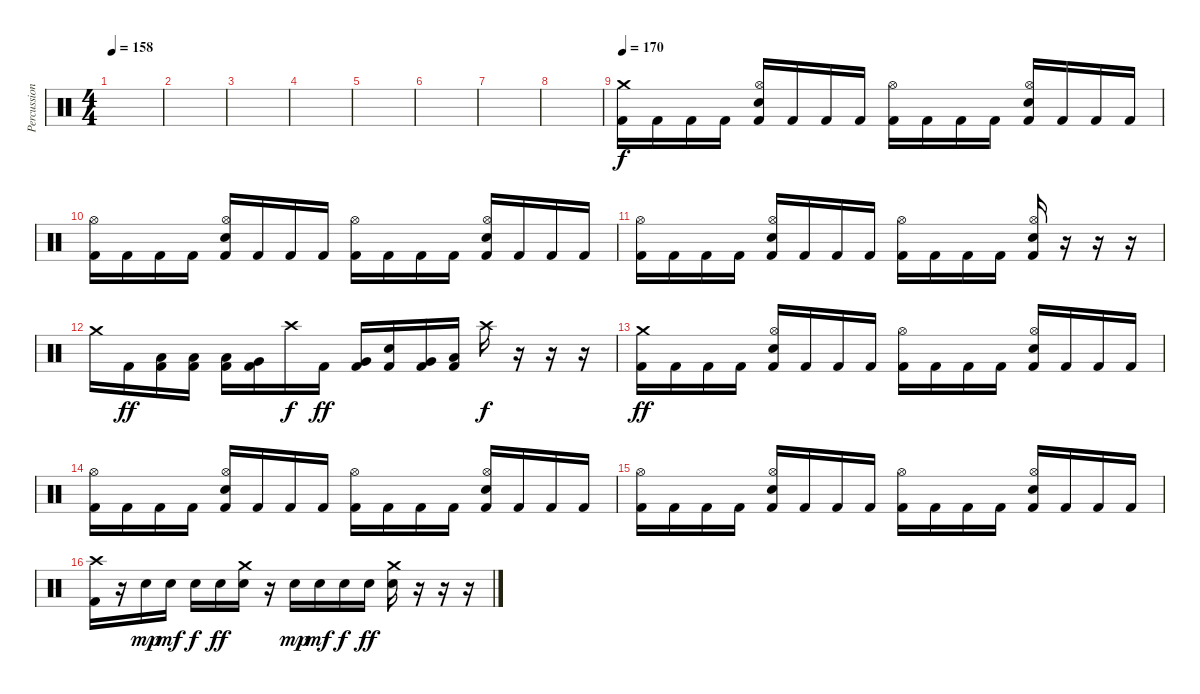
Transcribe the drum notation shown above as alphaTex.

\track ("Percussion" "Percussion") {instrument percussion}
\staff {score}
\articulation defaults
\ts (4 4)
\tempo 158
\clef neutral
\ks c
|
|
|
|
|
|
|
|
\tempo 170
("Crash medium (hit)" "Kick (hit) 2").16 "Kick (hit) 2".16 "Kick (hit) 2".16 "Kick (hit) 2".16 ("Hi-Hat (open)" "Electric Snare (hit)" "Kick (hit) 2").16 "Kick (hit) 2".16 "Kick (hit) 2".16 "Kick (hit) 2".16 ("Hi-Hat (open)" "Kick (hit) 2").16 "Kick (hit) 2".16 "Kick (hit) 2".16 "Kick (hit) 2".16 ("Hi-Hat (open)" "Electric Snare (hit)" "Kick (hit) 2").16 "Kick (hit) 2".16 "Kick (hit) 2".16 "Kick (hit) 2".16 |
("Hi-Hat (open)" "Kick (hit) 2").16 "Kick (hit) 2".16 "Kick (hit) 2".16 "Kick (hit) 2".16 ("Hi-Hat (open)" "Electric Snare (hit)" "Kick (hit) 2").16 "Kick (hit) 2".16 "Kick (hit) 2".16 "Kick (hit) 2".16 ("Hi-Hat (open)" "Kick (hit) 2").16 "Kick (hit) 2".16 "Kick (hit) 2".16 "Kick (hit) 2".16 ("Hi-Hat (open)" "Electric Snare (hit)" "Kick (hit) 2").16 "Kick (hit) 2".16 "Kick (hit) 2".16 "Kick (hit) 2".16 |
("Hi-Hat (open)" "Kick (hit) 2").16 "Kick (hit) 2".16 "Kick (hit) 2".16 "Kick (hit) 2".16 ("Hi-Hat (open)" "Electric Snare (hit)" "Kick (hit) 2").16 "Kick (hit) 2".16 "Kick (hit) 2".16 "Kick (hit) 2".16 ("Hi-Hat (open)" "Kick (hit) 2").16 "Kick (hit) 2".16 "Kick (hit) 2".16 "Kick (hit) 2".16 ("Hi-Hat (open)" "Electric Snare (hit)" "Kick (hit) 2").16 r.16 r.16 r.16 |
"Crash medium (hit)".16{dy f} "Kick (hit) 2".16{dy ff} ("Low Tom (hit)" "Kick (hit) 2").16 ("Low Tom (hit)" "Kick (hit) 2").16 ("Low Tom (hit)" "Kick (hit) 2").16 ("Very Low Tom (hit)" "Kick (hit) 2").16 "Crash high (hit)".16{dy f} "Kick (hit) 2".16{dy ff} ("Very Low Tom (hit)" "Kick (hit) 2").16 ("Metronome (bell)" "Kick (hit) 2").16 ("Very Low Tom (hit)" "Kick (hit) 2").16 ("Low Floor Tom (hit)" "Kick (hit) 2").16 "Crash high (hit)".16{dy f} r.16 r.16 r.16 |
("Crash medium (hit)" "Kick (hit) 2").16{dy ff} "Kick (hit) 2".16 "Kick (hit) 2".16 "Kick (hit) 2".16 ("Hi-Hat (open)" "Electric Snare (hit)" "Kick (hit) 2").16 "Kick (hit) 2".16 "Kick (hit) 2".16 "Kick (hit) 2".16 ("Hi-Hat (open)" "Kick (hit) 2").16 "Kick (hit) 2".16 "Kick (hit) 2".16 "Kick (hit) 2".16 ("Hi-Hat (open)" "Electric Snare (hit)" "Kick (hit) 2").16 "Kick (hit) 2".16 "Kick (hit) 2".16 "Kick (hit) 2".16 |
("Hi-Hat (open)" "Kick (hit) 2").16 "Kick (hit) 2".16 "Kick (hit) 2".16 "Kick (hit) 2".16 ("Hi-Hat (open)" "Electric Snare (hit)" "Kick (hit) 2").16 "Kick (hit) 2".16 "Kick (hit) 2".16 "Kick (hit) 2".16 ("Hi-Hat (open)" "Kick (hit) 2").16 "Kick (hit) 2".16 "Kick (hit) 2".16 "Kick (hit) 2".16 ("Hi-Hat (open)" "Electric Snare (hit)" "Kick (hit) 2").16 "Kick (hit) 2".16 "Kick (hit) 2".16 "Kick (hit) 2".16 |
("Hi-Hat (open)" "Kick (hit) 2").16 "Kick (hit) 2".16 "Kick (hit) 2".16 "Kick (hit) 2".16 ("Hi-Hat (open)" "Electric Snare (hit)" "Kick (hit) 2").16 "Kick (hit) 2".16 "Kick (hit) 2".16 "Kick (hit) 2".16 ("Hi-Hat (open)" "Kick (hit) 2").16 "Kick (hit) 2".16 "Kick (hit) 2".16 "Kick (hit) 2".16 ("Hi-Hat (open)" "Electric Snare (hit)" "Kick (hit) 2").16 "Kick (hit) 2".16 "Kick (hit) 2".16 "Kick (hit) 2".16 |
("Crash high (hit)" "Kick (hit) 2").16 r.16 "Electric Snare (hit)".16{dy mp} "Electric Snare (hit)".16{dy mf} "Electric Snare (hit)".16{dy f} "Electric Snare (hit)".16{dy ff} ("Crash medium (hit)" "Electric Snare (hit)").16 r.16 "Electric Snare (hit)".16{dy mp} "Electric Snare (hit)".16{dy mf} "Electric Snare (hit)".16{dy f} "Electric Snare (hit)".16{dy ff} ("Crash medium (hit)" "Electric Snare (hit)").16 r.16 r.16 r.16
